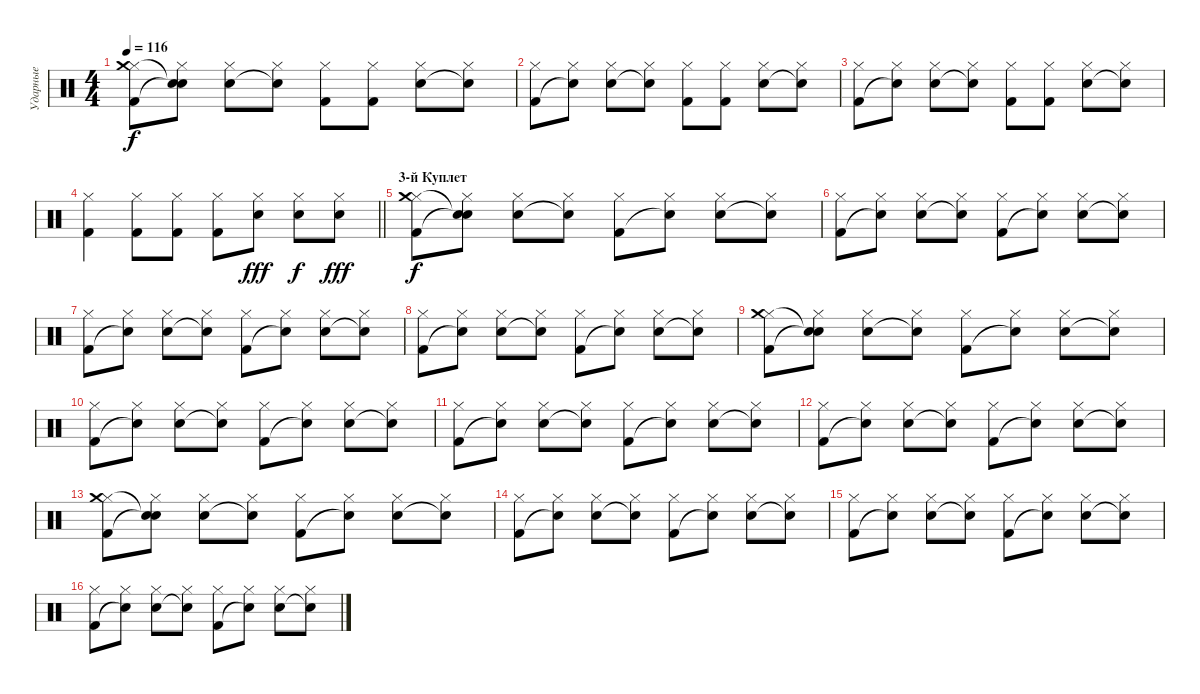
\track ("Ударные" "Ударные") {instrument percussion}
\staff {score}
\articulation defaults
\ts (4 4)
\tempo 116
\clef neutral
\ks c
("Hi-Hat (closed)" "Crash medium (hit)" "Kick (hit) 2").8{dy f} ("Hi-Hat (closed)" "Snare (hit)"{t} "Snare (hit)"{t}).8 ("Hi-Hat (closed)" "Snare (hit) 2").8 ("Hi-Hat (closed)" "Snare (hit)"{t}).8 ("Hi-Hat (closed)" "Kick (hit) 2").8 ("Hi-Hat (closed)" "Kick (hit) 2").8 ("Hi-Hat (closed)" "Snare (hit) 2").8 ("Hi-Hat (closed)" "Snare (hit)"{t}).8 |
("Hi-Hat (closed)" "Kick (hit) 2").8 ("Hi-Hat (closed)" "Snare (hit)"{t}).8 ("Hi-Hat (closed)" "Snare (hit) 2").8 ("Hi-Hat (closed)" "Snare (hit)"{t}).8 ("Hi-Hat (closed)" "Kick (hit) 2").8 ("Hi-Hat (closed)" "Kick (hit) 2").8 ("Hi-Hat (closed)" "Snare (hit) 2").8 ("Hi-Hat (closed)" "Snare (hit)"{t}).8 |
("Hi-Hat (closed)" "Kick (hit) 2").8 ("Hi-Hat (closed)" "Snare (hit)"{t}).8 ("Hi-Hat (closed)" "Snare (hit) 2").8 ("Hi-Hat (closed)" "Snare (hit)"{t}).8 ("Hi-Hat (closed)" "Kick (hit) 2").8 ("Hi-Hat (closed)" "Kick (hit) 2").8 ("Hi-Hat (closed)" "Snare (hit) 2").8 ("Hi-Hat (closed)" "Snare (hit)"{t}).8 |
\barLineRight lightlight
("Hi-Hat (closed)" "Kick (hit) 2").4 ("Hi-Hat (closed)" "Kick (hit) 2").8 ("Hi-Hat (closed)" "Kick (hit) 2").8 ("Hi-Hat (closed)" "Kick (hit) 2").8 ("Hi-Hat (closed)" "Snare (hit) 2").8{dy fff} ("Hi-Hat (closed)" "Snare (hit) 2").8{dy f} ("Hi-Hat (closed)" "Snare (hit) 2").8{dy fff} |
\section ("" "3-й Куплет")
("Hi-Hat (closed)" "Crash medium (hit)" "Kick (hit) 2").8{dy f} ("Hi-Hat (closed)" "Snare (hit)"{t} "Snare (hit)"{t}).8 ("Hi-Hat (closed)" "Snare (hit) 2").8 ("Hi-Hat (closed)" "Snare (hit)"{t}).8 ("Hi-Hat (closed)" "Kick (hit) 2").8 ("Hi-Hat (closed)" "Snare (hit)"{t}).8 ("Hi-Hat (closed)" "Snare (hit) 2").8 ("Hi-Hat (closed)" "Snare (hit)"{t}).8 |
("Hi-Hat (closed)" "Kick (hit) 2").8 ("Hi-Hat (closed)" "Snare (hit)"{t}).8 ("Hi-Hat (closed)" "Snare (hit) 2").8 ("Hi-Hat (closed)" "Snare (hit)"{t}).8 ("Hi-Hat (closed)" "Kick (hit) 2").8 ("Hi-Hat (closed)" "Snare (hit)"{t}).8 ("Hi-Hat (closed)" "Snare (hit) 2").8 ("Hi-Hat (closed)" "Snare (hit)"{t}).8 |
("Hi-Hat (closed)" "Kick (hit) 2").8 ("Hi-Hat (closed)" "Snare (hit)"{t}).8 ("Hi-Hat (closed)" "Snare (hit) 2").8 ("Hi-Hat (closed)" "Snare (hit)"{t}).8 ("Hi-Hat (closed)" "Kick (hit) 2").8 ("Hi-Hat (closed)" "Snare (hit)"{t}).8 ("Hi-Hat (closed)" "Snare (hit) 2").8 ("Hi-Hat (closed)" "Snare (hit)"{t}).8 |
("Hi-Hat (closed)" "Kick (hit) 2").8 ("Hi-Hat (closed)" "Snare (hit)"{t}).8 ("Hi-Hat (closed)" "Snare (hit) 2").8 ("Hi-Hat (closed)" "Snare (hit)"{t}).8 ("Hi-Hat (closed)" "Kick (hit) 2").8 ("Hi-Hat (closed)" "Snare (hit)"{t}).8 ("Hi-Hat (closed)" "Snare (hit) 2").8 ("Hi-Hat (closed)" "Snare (hit)"{t}).8 |
("Hi-Hat (closed)" "Crash medium (hit)" "Kick (hit) 2").8 ("Hi-Hat (closed)" "Snare (hit)"{t} "Snare (hit)"{t}).8 ("Hi-Hat (closed)" "Snare (hit) 2").8 ("Hi-Hat (closed)" "Snare (hit)"{t}).8 ("Hi-Hat (closed)" "Kick (hit) 2").8 ("Hi-Hat (closed)" "Snare (hit)"{t}).8 ("Hi-Hat (closed)" "Snare (hit) 2").8 ("Hi-Hat (closed)" "Snare (hit)"{t}).8 |
("Hi-Hat (closed)" "Kick (hit) 2").8 ("Hi-Hat (closed)" "Snare (hit)"{t}).8 ("Hi-Hat (closed)" "Snare (hit) 2").8 ("Hi-Hat (closed)" "Snare (hit)"{t}).8 ("Hi-Hat (closed)" "Kick (hit) 2").8 ("Hi-Hat (closed)" "Snare (hit)"{t}).8 ("Hi-Hat (closed)" "Snare (hit) 2").8 ("Hi-Hat (closed)" "Snare (hit)"{t}).8 |
("Hi-Hat (closed)" "Kick (hit) 2").8 ("Hi-Hat (closed)" "Snare (hit)"{t}).8 ("Hi-Hat (closed)" "Snare (hit) 2").8 ("Hi-Hat (closed)" "Snare (hit)"{t}).8 ("Hi-Hat (closed)" "Kick (hit) 2").8 ("Hi-Hat (closed)" "Snare (hit)"{t}).8 ("Hi-Hat (closed)" "Snare (hit) 2").8 ("Hi-Hat (closed)" "Snare (hit)"{t}).8 |
("Hi-Hat (closed)" "Kick (hit) 2").8 ("Hi-Hat (closed)" "Snare (hit)"{t}).8 ("Hi-Hat (closed)" "Snare (hit) 2").8 ("Hi-Hat (closed)" "Snare (hit)"{t}).8 ("Hi-Hat (closed)" "Kick (hit) 2").8 ("Hi-Hat (closed)" "Snare (hit)"{t}).8 ("Hi-Hat (closed)" "Snare (hit) 2").8 ("Hi-Hat (closed)" "Snare (hit)"{t}).8 |
("Hi-Hat (closed)" "Crash medium (hit)" "Kick (hit) 2").8 ("Hi-Hat (closed)" "Snare (hit)"{t} "Snare (hit)"{t}).8 ("Hi-Hat (closed)" "Snare (hit) 2").8 ("Hi-Hat (closed)" "Snare (hit)"{t}).8 ("Hi-Hat (closed)" "Kick (hit) 2").8 ("Hi-Hat (closed)" "Snare (hit)"{t}).8 ("Hi-Hat (closed)" "Snare (hit) 2").8 ("Hi-Hat (closed)" "Snare (hit)"{t}).8 |
("Hi-Hat (closed)" "Kick (hit) 2").8 ("Hi-Hat (closed)" "Snare (hit)"{t}).8 ("Hi-Hat (closed)" "Snare (hit) 2").8 ("Hi-Hat (closed)" "Snare (hit)"{t}).8 ("Hi-Hat (closed)" "Kick (hit) 2").8 ("Hi-Hat (closed)" "Snare (hit)"{t}).8 ("Hi-Hat (closed)" "Snare (hit) 2").8 ("Hi-Hat (closed)" "Snare (hit)"{t}).8 |
("Hi-Hat (closed)" "Kick (hit) 2").8 ("Hi-Hat (closed)" "Snare (hit)"{t}).8 ("Hi-Hat (closed)" "Snare (hit) 2").8 ("Hi-Hat (closed)" "Snare (hit)"{t}).8 ("Hi-Hat (closed)" "Kick (hit) 2").8 ("Hi-Hat (closed)" "Snare (hit)"{t}).8 ("Hi-Hat (closed)" "Snare (hit) 2").8 ("Hi-Hat (closed)" "Snare (hit)"{t}).8 |
("Hi-Hat (closed)" "Kick (hit) 2").8 ("Hi-Hat (closed)" "Snare (hit)"{t}).8 ("Hi-Hat (closed)" "Snare (hit) 2").8 ("Hi-Hat (closed)" "Snare (hit)"{t}).8 ("Hi-Hat (closed)" "Kick (hit) 2").8 ("Hi-Hat (closed)" "Snare (hit)"{t}).8 ("Hi-Hat (closed)" "Snare (hit) 2").8 ("Hi-Hat (closed)" "Snare (hit)"{t}).8
